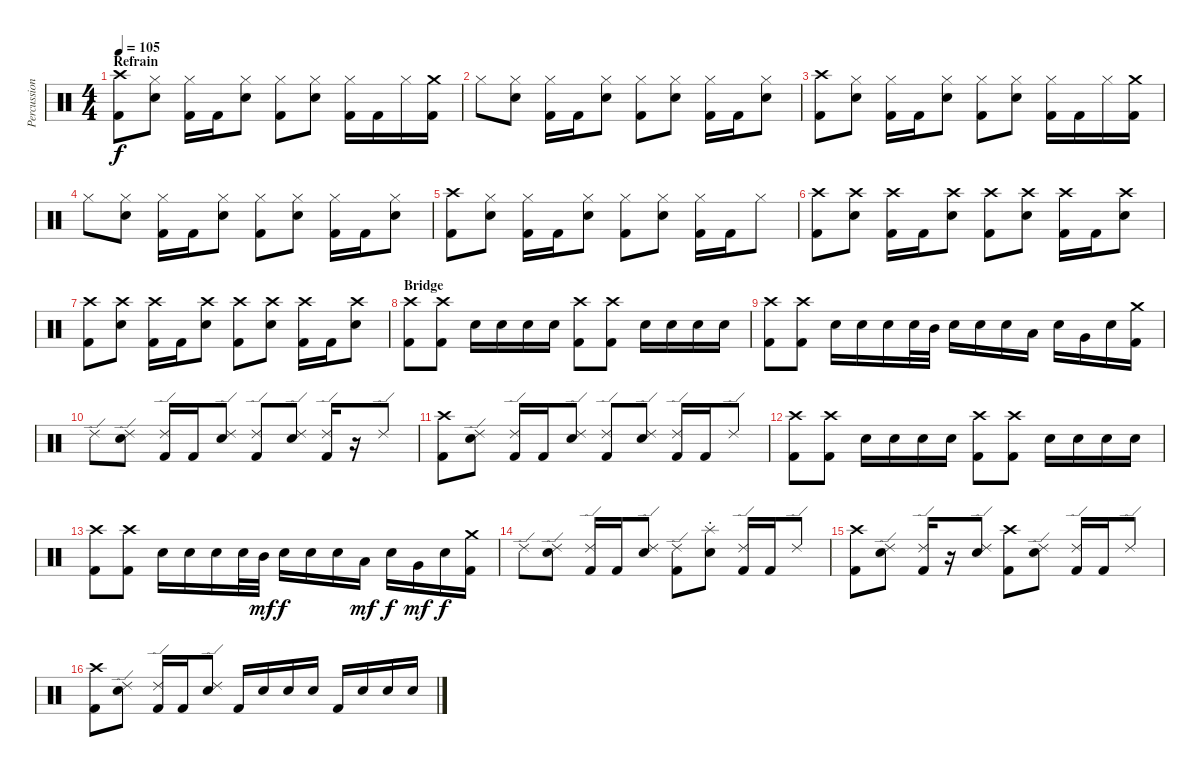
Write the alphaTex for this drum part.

\track ("Percussion" "Percussion") {instrument percussion}
\staff {score}
\articulation defaults
\ts (4 4)
\section ("" "Refrain")
\tempo 105
\clef neutral
\ks c
("Crash high (hit)" "Kick (hit) 2").8{dy f} ("Hi-Hat (closed)" "Electric Snare (hit)").8 ("Hi-Hat (closed)" "Kick (hit) 2").16 "Kick (hit) 2".16 ("Hi-Hat (closed)" "Electric Snare (hit)").8 ("Hi-Hat (closed)" "Kick (hit) 2").8 ("Hi-Hat (closed)" "Electric Snare (hit)").8 ("Hi-Hat (closed)" "Kick (hit) 2").16 "Kick (hit) 2".16 "Hi-Hat (closed)".16 ("Crash medium (hit)" "Kick (hit) 2").16 |
"Hi-Hat (closed)".8 ("Hi-Hat (closed)" "Electric Snare (hit)").8 ("Hi-Hat (closed)" "Kick (hit) 2").16 "Kick (hit) 2".16 ("Hi-Hat (closed)" "Electric Snare (hit)").8 ("Hi-Hat (closed)" "Kick (hit) 2").8 ("Hi-Hat (closed)" "Electric Snare (hit)").8 ("Hi-Hat (closed)" "Kick (hit) 2").16 "Kick (hit) 2".16 ("Hi-Hat (closed)" "Electric Snare (hit)").8 |
("Crash high (hit)" "Kick (hit) 2").8 ("Hi-Hat (closed)" "Electric Snare (hit)").8 ("Hi-Hat (closed)" "Kick (hit) 2").16 "Kick (hit) 2".16 ("Hi-Hat (closed)" "Electric Snare (hit)").8 ("Hi-Hat (closed)" "Kick (hit) 2").8 ("Hi-Hat (closed)" "Electric Snare (hit)").8 ("Hi-Hat (closed)" "Kick (hit) 2").16 "Kick (hit) 2".16 "Hi-Hat (closed)".16 ("Crash medium (hit)" "Kick (hit) 2").16 |
"Hi-Hat (closed)".8 ("Hi-Hat (closed)" "Electric Snare (hit)").8 ("Hi-Hat (closed)" "Kick (hit) 2").16 "Kick (hit) 2".16 ("Hi-Hat (closed)" "Electric Snare (hit)").8 ("Hi-Hat (closed)" "Kick (hit) 2").8 ("Hi-Hat (closed)" "Electric Snare (hit)").8 ("Hi-Hat (closed)" "Kick (hit) 2").16 "Kick (hit) 2".16 ("Hi-Hat (closed)" "Electric Snare (hit)").8 |
("Crash high (hit)" "Kick (hit) 2").8 ("Hi-Hat (closed)" "Electric Snare (hit)").8 ("Hi-Hat (closed)" "Kick (hit) 2").16 "Kick (hit) 2".16 ("Hi-Hat (closed)" "Electric Snare (hit)").8 ("Hi-Hat (closed)" "Kick (hit) 2").8 ("Hi-Hat (closed)" "Electric Snare (hit)").8 ("Hi-Hat (closed)" "Kick (hit) 2").16 "Kick (hit) 2".16 "Hi-Hat (closed)".8 |
("Crash high (hit)" "Kick (hit) 2").8 ("Crash high (hit)" "Electric Snare (hit)").8 ("Crash high (hit)" "Kick (hit) 2").16 "Kick (hit) 2".16 ("Crash high (hit)" "Electric Snare (hit)").8 ("Crash high (hit)" "Kick (hit) 2").8 ("Crash high (hit)" "Electric Snare (hit)").8 ("Crash high (hit)" "Kick (hit) 2").16 "Kick (hit) 2".16 ("Crash high (hit)" "Electric Snare (hit)").8 |
("Crash high (hit)" "Kick (hit) 2").8 ("Crash high (hit)" "Electric Snare (hit)").8 ("Crash high (hit)" "Kick (hit) 2").16 "Kick (hit) 2".16 ("Crash high (hit)" "Electric Snare (hit)").8 ("Crash high (hit)" "Kick (hit) 2").8 ("Crash high (hit)" "Electric Snare (hit)").8 ("Crash high (hit)" "Kick (hit) 2").16 "Kick (hit) 2".16 ("Crash high (hit)" "Electric Snare (hit)").8 |
\section ("" "Bridge")
("Crash high (hit)" "Kick (hit) 2").8 ("Crash high (hit)" "Kick (hit) 2").8 "Electric Snare (hit)".16 "Electric Snare (hit)".16 "Electric Snare (hit)".16 "Electric Snare (hit)".16 ("Crash high (hit)" "Kick (hit) 2").8 ("Crash high (hit)" "Kick (hit) 2").8 "Electric Snare (hit)".16 "Electric Snare (hit)".16 "Electric Snare (hit)".16 "Electric Snare (hit)".16 |
("Crash high (hit)" "Kick (hit) 2").8 ("Crash high (hit)" "Kick (hit) 2").8 "Electric Snare (hit)".16 "Electric Snare (hit)".16 "Electric Snare (hit)".16 "Electric Snare (hit)".32 "Mid Tom (hit)".32 "Electric Snare (hit)".16 "Electric Snare (hit)".16 "Electric Snare (hit)".16 "Low Tom (hit)".16 "Electric Snare (hit)".16 "Very Low Tom (hit)".16 "Electric Snare (hit)".16 ("Crash medium (hit)" "Kick (hit) 2").16 |
"Ride (edge) 2".8 ("Ride (edge) 2" "Electric Snare (hit)").8 ("Ride (edge) 2" "Kick (hit) 2").16 "Kick (hit) 2".16 ("Ride (edge) 2" "Electric Snare (hit)").8 ("Ride (edge) 2" "Kick (hit) 2").8 ("Ride (edge) 2" "Electric Snare (hit)").8 ("Ride (edge) 2" "Kick (hit) 2").16 r.16 "Ride (edge) 2".8 |
("Crash high (hit)" "Kick (hit) 2").8 ("Ride (edge) 2" "Electric Snare (hit)").8 ("Ride (edge) 2" "Kick (hit) 2").16 "Kick (hit) 2".16 ("Ride (edge) 2" "Electric Snare (hit)").8 ("Ride (edge) 2" "Kick (hit) 2").8 ("Ride (edge) 2" "Electric Snare (hit)").8 ("Ride (edge) 2" "Kick (hit) 2").16 "Kick (hit) 2".16 "Ride (edge) 2".8 |
("Crash high (hit)" "Kick (hit) 2").8 ("Crash high (hit)" "Kick (hit) 2").8 "Electric Snare (hit)".16 "Electric Snare (hit)".16 "Electric Snare (hit)".16 "Electric Snare (hit)".16 ("Crash high (hit)" "Kick (hit) 2").8 ("Crash high (hit)" "Kick (hit) 2").8 "Electric Snare (hit)".16 "Electric Snare (hit)".16 "Electric Snare (hit)".16 "Electric Snare (hit)".16 |
("Crash high (hit)" "Kick (hit) 2").8 ("Crash high (hit)" "Kick (hit) 2").8 "Electric Snare (hit)".16 "Electric Snare (hit)".16 "Electric Snare (hit)".16 "Electric Snare (hit)".32 "Mid Tom (hit)".32{dy mf} "Electric Snare (hit)".16{dy f} "Electric Snare (hit)".16 "Electric Snare (hit)".16 "Low Tom (hit)".16{dy mf} "Electric Snare (hit)".16{dy f} "Very Low Tom (hit)".16{dy mf} "Electric Snare (hit)".16{dy f} ("Crash medium (hit)" "Kick (hit) 2").16 |
"Ride (edge) 2".8 ("Ride (edge) 2" "Electric Snare (hit)").8 ("Ride (edge) 2" "Kick (hit) 2").16 "Kick (hit) 2".16 ("Ride (edge) 2" "Electric Snare (hit)").8 ("Ride (edge) 2" "Kick (hit) 2").8 ("Splash (choke)" "Electric Snare (hit)").8 ("Ride (edge) 2" "Kick (hit) 2").16 "Kick (hit) 2".16 "Ride (edge) 2".8 |
("Crash high (hit)" "Kick (hit) 2").8 ("Ride (edge) 2" "Electric Snare (hit)").8 ("Ride (edge) 2" "Kick (hit) 2").16 r.16 ("Ride (edge) 2" "Electric Snare (hit)").8 ("Crash high (hit)" "Kick (hit) 2").8 ("Ride (edge) 2" "Electric Snare (hit)").8 ("Ride (edge) 2" "Kick (hit) 2").16 "Kick (hit) 2".16 "Ride (edge) 2".8 |
("Crash high (hit)" "Kick (hit) 2").8 ("Ride (edge) 2" "Electric Snare (hit)").8 ("Ride (edge) 2" "Kick (hit) 2").16 "Kick (hit) 2".16 ("Ride (edge) 2" "Electric Snare (hit)").8 "Kick (hit) 2".16 "Electric Snare (hit)".16 "Electric Snare (hit)".16 "Electric Snare (hit)".16 "Kick (hit) 2".16 "Electric Snare (hit)".16 "Electric Snare (hit)".16 "Electric Snare (hit)".16
